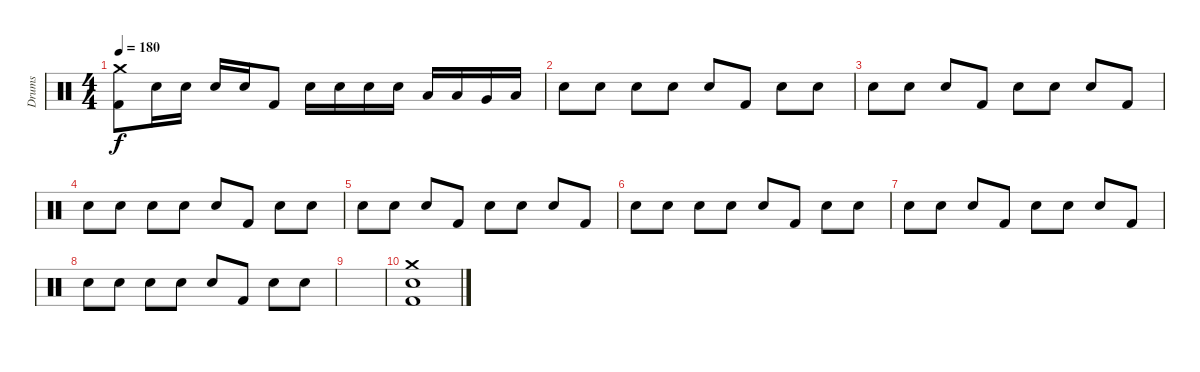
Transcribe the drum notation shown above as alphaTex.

\track ("Drums" "Drums") {instrument percussion}
\staff {score}
\articulation defaults
\ts (4 4)
\tempo 180
\clef neutral
\ks c
("Crash medium (hit)" "Kick (hit) 2").8{dy f} "Snare (hit) 2".16 "Snare (hit) 2".16 "Snare (hit) 2".16 "Snare (hit) 2".16 "Kick (hit) 2".8 "Snare (hit) 2".16 "Snare (hit) 2".16 "Snare (hit) 2".16 "Snare (hit) 2".16 "Low Tom (hit)".16 "Low Tom (hit)".16 "Very Low Tom (hit)".16 "Low Floor Tom (hit)".16 |
"Snare (hit) 2".8 "Snare (hit) 2".8 "Snare (hit) 2".8 "Snare (hit) 2".8 "Snare (hit) 2".8 "Kick (hit) 2".8 "Snare (hit) 2".8 "Snare (hit) 2".8 |
"Snare (hit) 2".8 "Snare (hit) 2".8 "Snare (hit) 2".8 "Kick (hit) 2".8 "Snare (hit) 2".8 "Snare (hit) 2".8 "Snare (hit) 2".8 "Kick (hit) 2".8 |
"Snare (hit) 2".8 "Snare (hit) 2".8 "Snare (hit) 2".8 "Snare (hit) 2".8 "Snare (hit) 2".8 "Kick (hit) 2".8 "Snare (hit) 2".8 "Snare (hit) 2".8 |
"Snare (hit) 2".8 "Snare (hit) 2".8 "Snare (hit) 2".8 "Kick (hit) 2".8 "Snare (hit) 2".8 "Snare (hit) 2".8 "Snare (hit) 2".8 "Kick (hit) 2".8 |
"Snare (hit) 2".8 "Snare (hit) 2".8 "Snare (hit) 2".8 "Snare (hit) 2".8 "Snare (hit) 2".8 "Kick (hit) 2".8 "Snare (hit) 2".8 "Snare (hit) 2".8 |
"Snare (hit) 2".8 "Snare (hit) 2".8 "Snare (hit) 2".8 "Kick (hit) 2".8 "Snare (hit) 2".8 "Snare (hit) 2".8 "Snare (hit) 2".8 "Kick (hit) 2".8 |
"Snare (hit) 2".8 "Snare (hit) 2".8 "Snare (hit) 2".8 "Snare (hit) 2".8 "Snare (hit) 2".8 "Kick (hit) 2".8 "Snare (hit) 2".8 "Snare (hit) 2".8 |
|
("Crash medium (hit)" "Snare (hit) 2" "Kick (hit) 2").1
